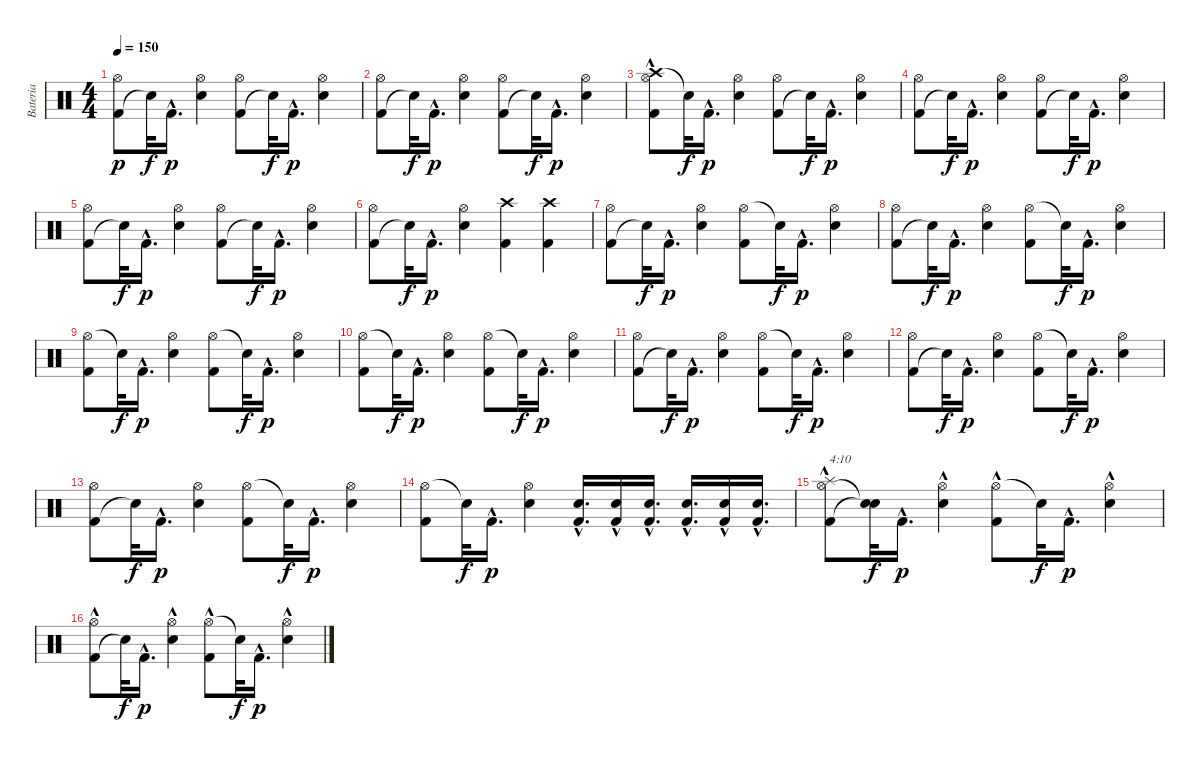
\track ("Bateria" "Bateria") {instrument percussion}
\staff {score}
\articulation defaults
\ts (4 4)
\tempo 150
\clef neutral
\ks c
("Kick (hit) 2" "Hi-Hat (open)").8{dy p} "Snare (hit)"{t}.32{dy f} "Kick (hit) 2"{hac}.16{d dy p} ("Snare (hit) 2" "Hi-Hat (open)").4 ("Kick (hit) 2" "Hi-Hat (open)").8 "Snare (hit)"{t}.32{dy f} "Kick (hit) 2"{hac}.16{d dy p} ("Hi-Hat (open)" "Snare (hit) 2").4 |
("Kick (hit) 2" "Hi-Hat (open)").8 "Snare (hit)"{t}.32{dy f} "Kick (hit) 2"{hac}.16{d dy p} ("Snare (hit) 2" "Hi-Hat (open)").4 ("Kick (hit) 2" "Hi-Hat (open)").8 "Snare (hit)"{t}.32{dy f} "Kick (hit) 2"{hac}.16{d dy p} ("Hi-Hat (open)" "Snare (hit) 2").4 |
("Crash high (hit)"{hac} "Hi-Hat (open)" "Kick (hit) 2").8 "Snare (hit)"{t}.32{dy f} "Kick (hit) 2"{hac}.16{d dy p} ("Hi-Hat (open)" "Snare (hit) 2").4 ("Kick (hit) 2" "Hi-Hat (open)").8 "Snare (hit)"{t}.32{dy f} "Kick (hit) 2"{hac}.16{d dy p} ("Hi-Hat (open)" "Snare (hit) 2").4 |
("Kick (hit) 2" "Hi-Hat (open)").8 "Snare (hit)"{t}.32{dy f} "Kick (hit) 2"{hac}.16{d dy p} ("Snare (hit) 2" "Hi-Hat (open)").4 ("Kick (hit) 2" "Hi-Hat (open)").8 "Snare (hit)"{t}.32{dy f} "Kick (hit) 2"{hac}.16{d dy p} ("Hi-Hat (open)" "Snare (hit) 2").4 |
("Kick (hit) 2" "Hi-Hat (open)").8 "Snare (hit)"{t}.32{dy f} "Kick (hit) 2"{hac}.16{d dy p} ("Snare (hit) 2" "Hi-Hat (open)").4 ("Kick (hit) 2" "Hi-Hat (open)").8 "Snare (hit)"{t}.32{dy f} "Kick (hit) 2"{hac}.16{d dy p} ("Hi-Hat (open)" "Snare (hit) 2").4 |
("Kick (hit) 2" "Hi-Hat (open)").8 "Snare (hit)"{t}.32{dy f} "Kick (hit) 2"{hac}.16{d dy p} ("Snare (hit) 2" "Hi-Hat (open)").4 ("Crash high (hit)" "Kick (hit) 2").4 ("Crash high (hit)" "Kick (hit) 2").4 |
("Kick (hit) 2" "Hi-Hat (open)").8 "Snare (hit)"{t}.32{dy f} "Kick (hit) 2"{hac}.16{d dy p} ("Snare (hit) 2" "Hi-Hat (open)").4 ("Hi-Hat (open)" "Kick (hit) 2").8 "Snare (hit)"{t}.32{dy f} "Kick (hit) 2"{hac}.16{d dy p} ("Snare (hit) 2" "Hi-Hat (open)").4 |
("Kick (hit) 2" "Hi-Hat (open)").8 "Snare (hit)"{t}.32{dy f} "Kick (hit) 2"{hac}.16{d dy p} ("Hi-Hat (open)" "Snare (hit) 2").4 ("Hi-Hat (open)" "Kick (hit) 2").8 "Snare (hit)"{t}.32{dy f} "Kick (hit) 2"{hac}.16{d dy p} ("Hi-Hat (open)" "Snare (hit) 2").4 |
("Hi-Hat (open)" "Kick (hit) 2").8 "Snare (hit)"{t}.32{dy f} "Kick (hit) 2"{hac}.16{d dy p} ("Hi-Hat (open)" "Snare (hit) 2").4 ("Hi-Hat (open)" "Kick (hit) 2").8 "Snare (hit)"{t}.32{dy f} "Kick (hit) 2"{hac}.16{d dy p} ("Hi-Hat (open)" "Snare (hit) 2").4 |
("Hi-Hat (open)" "Kick (hit) 2").8 "Snare (hit)"{t}.32{dy f} "Kick (hit) 2"{hac}.16{d dy p} ("Hi-Hat (open)" "Snare (hit) 2").4 ("Hi-Hat (open)" "Kick (hit) 2").8 "Snare (hit)"{t}.32{dy f} "Kick (hit) 2"{hac}.16{d dy p} ("Hi-Hat (open)" "Snare (hit) 2").4 |
("Kick (hit) 2" "Hi-Hat (open)").8 "Snare (hit)"{t}.32{dy f} "Kick (hit) 2"{hac}.16{d dy p} ("Hi-Hat (open)" "Snare (hit) 2").4 ("Hi-Hat (open)" "Kick (hit) 2").8 "Snare (hit)"{t}.32{dy f} "Kick (hit) 2"{hac}.16{d dy p} ("Hi-Hat (open)" "Snare (hit) 2").4 |
("Kick (hit) 2" "Hi-Hat (open)").8 "Snare (hit)"{t}.32{dy f} "Kick (hit) 2"{hac}.16{d dy p} ("Hi-Hat (open)" "Snare (hit) 2").4 ("Hi-Hat (open)" "Kick (hit) 2").8 "Snare (hit)"{t}.32{dy f} "Kick (hit) 2"{hac}.16{d dy p} ("Hi-Hat (open)" "Snare (hit) 2").4 |
("Kick (hit) 2" "Hi-Hat (open)").8 "Snare (hit)"{t}.32{dy f} "Kick (hit) 2"{hac}.16{d dy p} ("Hi-Hat (open)" "Snare (hit) 2").4 ("Hi-Hat (open)" "Kick (hit) 2").8 "Snare (hit)"{t}.32{dy f} "Kick (hit) 2"{hac}.16{d dy p} ("Hi-Hat (open)" "Snare (hit) 2").4 |
("Hi-Hat (open)" "Kick (hit) 2").8 "Snare (hit)"{t}.32{dy f} "Kick (hit) 2"{hac}.16{d dy p} ("Hi-Hat (open)" "Snare (hit) 2").4 ("Snare (hit) 2"{hac} "Kick (hit) 2"{hac}).16{d} ("Kick (hit) 2"{hac} "Snare (hit) 2"{hac}).16 ("Kick (hit) 2"{hac} "Snare (hit) 2"{hac}).16{d} ("Kick (hit) 2"{hac} "Snare (hit) 2"{hac}).16{d} ("Kick (hit) 2"{hac} "Snare (hit) 2"{hac}).16 ("Kick (hit) 2"{hac} "Snare (hit) 2"{hac}).16{d} |
("Hi-Hat (open)" "Kick (hit) 2"{hac} "Splash (hit)").8{txt "4:10"} ("Snare (hit)"{t} "Snare (hit)"{t}).32{dy f} "Kick (hit) 2"{hac}.16{d dy p} ("Hi-Hat (open)" "Snare (hit) 2"{hac}).4 ("Hi-Hat (open)" "Kick (hit) 2"{hac}).8 "Snare (hit)"{t}.32{dy f} "Kick (hit) 2"{hac}.16{d dy p} ("Hi-Hat (open)" "Snare (hit) 2"{hac}).4 |
("Kick (hit) 2"{hac} "Hi-Hat (open)").8 "Snare (hit)"{t}.32{dy f} "Kick (hit) 2"{hac}.16{d dy p} ("Snare (hit) 2"{hac} "Hi-Hat (open)").4 ("Hi-Hat (open)" "Kick (hit) 2"{hac}).8 "Snare (hit)"{t}.32{dy f} "Kick (hit) 2"{hac}.16{d dy p} ("Snare (hit) 2"{hac} "Hi-Hat (open)").4
